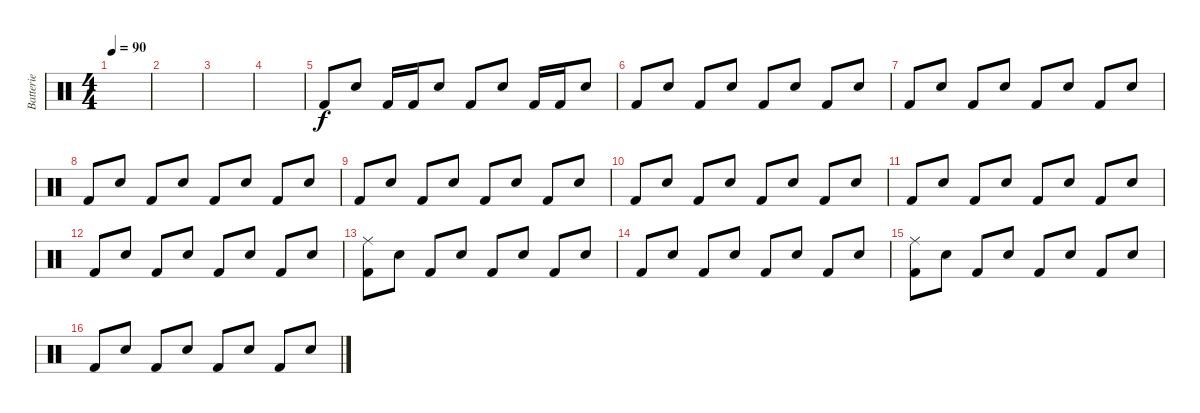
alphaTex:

\track ("Batterie" "Batterie") {instrument percussion}
\staff {score}
\articulation defaults
\ts (4 4)
\tempo 90
\clef neutral
\ks c
|
|
|
|
"Kick (hit) 2".8 "Electric Snare (hit)".8 "Kick (hit) 2".16 "Kick (hit) 2".16 "Electric Snare (hit)".8 "Kick (hit) 2".8 "Electric Snare (hit)".8 "Kick (hit) 2".16 "Kick (hit) 2".16 "Electric Snare (hit)".8 |
"Kick (hit) 2".8 "Electric Snare (hit)".8 "Kick (hit) 2".8 "Electric Snare (hit)".8 "Kick (hit) 2".8 "Electric Snare (hit)".8 "Kick (hit) 2".8 "Electric Snare (hit)".8 |
"Kick (hit) 2".8 "Electric Snare (hit)".8 "Kick (hit) 2".8 "Electric Snare (hit)".8 "Kick (hit) 2".8 "Electric Snare (hit)".8 "Kick (hit) 2".8 "Electric Snare (hit)".8 |
"Kick (hit) 2".8 "Electric Snare (hit)".8 "Kick (hit) 2".8 "Electric Snare (hit)".8 "Kick (hit) 2".8 "Electric Snare (hit)".8 "Kick (hit) 2".8 "Electric Snare (hit)".8 |
"Kick (hit) 2".8 "Electric Snare (hit)".8 "Kick (hit) 2".8 "Electric Snare (hit)".8 "Kick (hit) 2".8 "Electric Snare (hit)".8 "Kick (hit) 2".8 "Electric Snare (hit)".8 |
"Kick (hit) 2".8 "Electric Snare (hit)".8 "Kick (hit) 2".8 "Electric Snare (hit)".8 "Kick (hit) 2".8 "Electric Snare (hit)".8 "Kick (hit) 2".8 "Electric Snare (hit)".8 |
"Kick (hit) 2".8 "Electric Snare (hit)".8 "Kick (hit) 2".8 "Electric Snare (hit)".8 "Kick (hit) 2".8 "Electric Snare (hit)".8 "Kick (hit) 2".8 "Electric Snare (hit)".8 |
"Kick (hit) 2".8 "Electric Snare (hit)".8 "Kick (hit) 2".8 "Electric Snare (hit)".8 "Kick (hit) 2".8 "Electric Snare (hit)".8 "Kick (hit) 2".8 "Electric Snare (hit)".8 |
("Ride (middle)" "Kick (hit) 2").8 "Electric Snare (hit)".8 "Kick (hit) 2".8 "Electric Snare (hit)".8 "Kick (hit) 2".8 "Electric Snare (hit)".8 "Kick (hit) 2".8 "Electric Snare (hit)".8 |
"Kick (hit) 2".8 "Electric Snare (hit)".8 "Kick (hit) 2".8 "Electric Snare (hit)".8 "Kick (hit) 2".8 "Electric Snare (hit)".8 "Kick (hit) 2".8 "Electric Snare (hit)".8 |
("Ride (middle)" "Kick (hit) 2").8 "Electric Snare (hit)".8 "Kick (hit) 2".8 "Electric Snare (hit)".8 "Kick (hit) 2".8 "Electric Snare (hit)".8 "Kick (hit) 2".8 "Electric Snare (hit)".8 |
"Kick (hit) 2".8 "Electric Snare (hit)".8 "Kick (hit) 2".8 "Electric Snare (hit)".8 "Kick (hit) 2".8 "Electric Snare (hit)".8 "Kick (hit) 2".8 "Electric Snare (hit)".8
